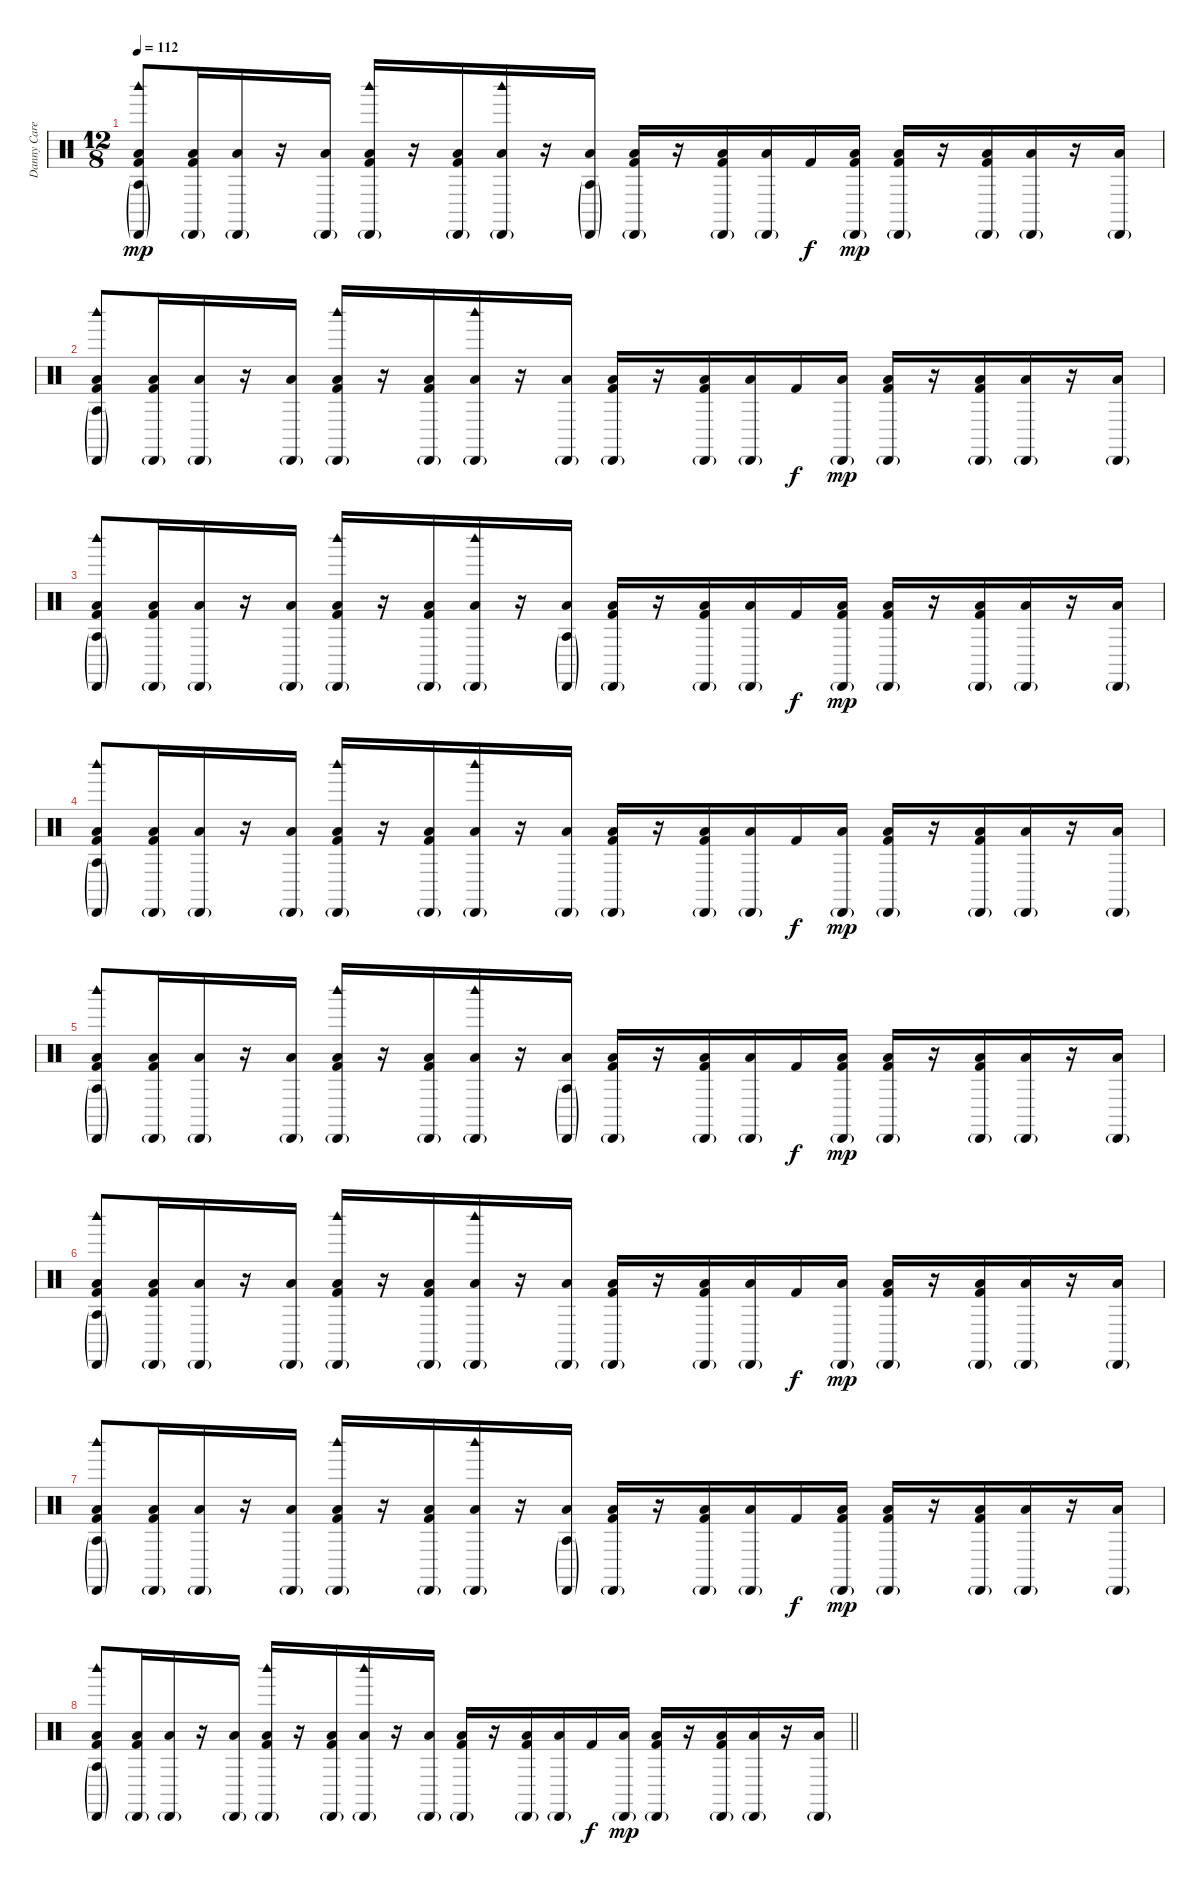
\track ("Danny Carey" "Danny Care") {instrument percussion}
\staff {score}
\articulation defaults
\ts (12 8)
\tempo 112
\clef neutral
\ks c
("Low Floor Tom (hit)" "Agogo tow (hit)"{g} "Cabasa (hit)"{g} "Woodblock high (hit)" "Kick (hit) 2").8{dy mp} ("Low Floor Tom (hit)" "Cabasa (hit)"{g} "Kick (hit) 2").16 ("Low Floor Tom (hit)" "Cabasa (hit)"{g}).16 r.16 ("Low Floor Tom (hit)" "Cabasa (hit)"{g}).16 ("Low Floor Tom (hit)" "Cabasa (hit)"{g} "Woodblock high (hit)" "Kick (hit) 2").16 r.16 ("Low Floor Tom (hit)" "Cabasa (hit)"{g} "Kick (hit) 2").16 ("Low Floor Tom (hit)" "Cabasa (hit)"{g} "Woodblock high (hit)").16 r.16 ("Low Floor Tom (hit)" "Agogo tow (hit)"{g} "Cabasa (hit)"{g}).16 ("Low Floor Tom (hit)" "Cabasa (hit)"{g} "Kick (hit) 2").16 r.16 ("Low Floor Tom (hit)" "Cabasa (hit)"{g} "Kick (hit) 2").16 ("Low Floor Tom (hit)" "Cabasa (hit)"{g}).16 "Kick (hit) 2".16{dy f} ("Low Floor Tom (hit)" "Cabasa (hit)"{g} "Kick (hit) 2").16{dy mp} ("Low Floor Tom (hit)" "Cabasa (hit)"{g} "Kick (hit) 2").16 r.16 ("Low Floor Tom (hit)" "Cabasa (hit)"{g} "Kick (hit) 2").16 ("Low Floor Tom (hit)" "Cabasa (hit)"{g}).16 r.16 ("Low Floor Tom (hit)" "Cabasa (hit)"{g}).16 |
("Low Floor Tom (hit)" "Agogo tow (hit)"{g} "Cabasa (hit)"{g} "Woodblock high (hit)" "Kick (hit) 2").8 ("Low Floor Tom (hit)" "Cabasa (hit)"{g} "Kick (hit) 2").16 ("Low Floor Tom (hit)" "Cabasa (hit)"{g}).16 r.16 ("Low Floor Tom (hit)" "Cabasa (hit)"{g}).16 ("Low Floor Tom (hit)" "Cabasa (hit)"{g} "Woodblock high (hit)" "Kick (hit) 2").16 r.16 ("Low Floor Tom (hit)" "Cabasa (hit)"{g} "Kick (hit) 2").16 ("Low Floor Tom (hit)" "Cabasa (hit)"{g} "Woodblock high (hit)").16 r.16 ("Low Floor Tom (hit)" "Cabasa (hit)"{g}).16 ("Low Floor Tom (hit)" "Cabasa (hit)"{g} "Kick (hit) 2").16 r.16 ("Low Floor Tom (hit)" "Cabasa (hit)"{g} "Kick (hit) 2").16 ("Low Floor Tom (hit)" "Cabasa (hit)"{g}).16 "Kick (hit) 2".16{dy f} ("Low Floor Tom (hit)" "Cabasa (hit)"{g}).16{dy mp} ("Low Floor Tom (hit)" "Cabasa (hit)"{g} "Kick (hit) 2").16 r.16 ("Low Floor Tom (hit)" "Cabasa (hit)"{g} "Kick (hit) 2").16 ("Low Floor Tom (hit)" "Cabasa (hit)"{g}).16 r.16 ("Low Floor Tom (hit)" "Cabasa (hit)"{g}).16 |
("Low Floor Tom (hit)" "Agogo tow (hit)"{g} "Cabasa (hit)"{g} "Woodblock high (hit)" "Kick (hit) 2").8 ("Low Floor Tom (hit)" "Cabasa (hit)"{g} "Kick (hit) 2").16 ("Low Floor Tom (hit)" "Cabasa (hit)"{g}).16 r.16 ("Low Floor Tom (hit)" "Cabasa (hit)"{g}).16 ("Low Floor Tom (hit)" "Cabasa (hit)"{g} "Woodblock high (hit)" "Kick (hit) 2").16 r.16 ("Low Floor Tom (hit)" "Cabasa (hit)"{g} "Kick (hit) 2").16 ("Low Floor Tom (hit)" "Cabasa (hit)"{g} "Woodblock high (hit)").16 r.16 ("Low Floor Tom (hit)" "Agogo tow (hit)"{g} "Cabasa (hit)"{g}).16 ("Low Floor Tom (hit)" "Cabasa (hit)"{g} "Kick (hit) 2").16 r.16 ("Low Floor Tom (hit)" "Cabasa (hit)"{g} "Kick (hit) 2").16 ("Low Floor Tom (hit)" "Cabasa (hit)"{g}).16 "Kick (hit) 2".16{dy f} ("Low Floor Tom (hit)" "Cabasa (hit)"{g} "Kick (hit) 2").16{dy mp} ("Low Floor Tom (hit)" "Cabasa (hit)"{g} "Kick (hit) 2").16 r.16 ("Low Floor Tom (hit)" "Cabasa (hit)"{g} "Kick (hit) 2").16 ("Low Floor Tom (hit)" "Cabasa (hit)"{g}).16 r.16 ("Low Floor Tom (hit)" "Cabasa (hit)"{g}).16 |
("Low Floor Tom (hit)" "Agogo tow (hit)"{g} "Cabasa (hit)"{g} "Woodblock high (hit)" "Kick (hit) 2").8 ("Low Floor Tom (hit)" "Cabasa (hit)"{g} "Kick (hit) 2").16 ("Low Floor Tom (hit)" "Cabasa (hit)"{g}).16 r.16 ("Low Floor Tom (hit)" "Cabasa (hit)"{g}).16 ("Low Floor Tom (hit)" "Cabasa (hit)"{g} "Woodblock high (hit)" "Kick (hit) 2").16 r.16 ("Low Floor Tom (hit)" "Cabasa (hit)"{g} "Kick (hit) 2").16 ("Low Floor Tom (hit)" "Cabasa (hit)"{g} "Woodblock high (hit)").16 r.16 ("Low Floor Tom (hit)" "Cabasa (hit)"{g}).16 ("Low Floor Tom (hit)" "Cabasa (hit)"{g} "Kick (hit) 2").16 r.16 ("Low Floor Tom (hit)" "Cabasa (hit)"{g} "Kick (hit) 2").16 ("Low Floor Tom (hit)" "Cabasa (hit)"{g}).16 "Kick (hit) 2".16{dy f} ("Low Floor Tom (hit)" "Cabasa (hit)"{g}).16{dy mp} ("Low Floor Tom (hit)" "Cabasa (hit)"{g} "Kick (hit) 2").16 r.16 ("Low Floor Tom (hit)" "Cabasa (hit)"{g} "Kick (hit) 2").16 ("Low Floor Tom (hit)" "Cabasa (hit)"{g}).16 r.16 ("Low Floor Tom (hit)" "Cabasa (hit)"{g}).16 |
("Low Floor Tom (hit)" "Agogo tow (hit)"{g} "Cabasa (hit)"{g} "Woodblock high (hit)" "Kick (hit) 2").8 ("Low Floor Tom (hit)" "Cabasa (hit)"{g} "Kick (hit) 2").16 ("Low Floor Tom (hit)" "Cabasa (hit)"{g}).16 r.16 ("Low Floor Tom (hit)" "Cabasa (hit)"{g}).16 ("Low Floor Tom (hit)" "Cabasa (hit)"{g} "Woodblock high (hit)" "Kick (hit) 2").16 r.16 ("Low Floor Tom (hit)" "Cabasa (hit)"{g} "Kick (hit) 2").16 ("Low Floor Tom (hit)" "Cabasa (hit)"{g} "Woodblock high (hit)").16 r.16 ("Low Floor Tom (hit)" "Agogo tow (hit)"{g} "Cabasa (hit)"{g}).16 ("Low Floor Tom (hit)" "Cabasa (hit)"{g} "Kick (hit) 2").16 r.16 ("Low Floor Tom (hit)" "Cabasa (hit)"{g} "Kick (hit) 2").16 ("Low Floor Tom (hit)" "Cabasa (hit)"{g}).16 "Kick (hit) 2".16{dy f} ("Low Floor Tom (hit)" "Cabasa (hit)"{g} "Kick (hit) 2").16{dy mp} ("Low Floor Tom (hit)" "Cabasa (hit)"{g} "Kick (hit) 2").16 r.16 ("Low Floor Tom (hit)" "Cabasa (hit)"{g} "Kick (hit) 2").16 ("Low Floor Tom (hit)" "Cabasa (hit)"{g}).16 r.16 ("Low Floor Tom (hit)" "Cabasa (hit)"{g}).16 |
("Low Floor Tom (hit)" "Agogo tow (hit)"{g} "Cabasa (hit)"{g} "Woodblock high (hit)" "Kick (hit) 2").8 ("Low Floor Tom (hit)" "Cabasa (hit)"{g} "Kick (hit) 2").16 ("Low Floor Tom (hit)" "Cabasa (hit)"{g}).16 r.16 ("Low Floor Tom (hit)" "Cabasa (hit)"{g}).16 ("Low Floor Tom (hit)" "Cabasa (hit)"{g} "Woodblock high (hit)" "Kick (hit) 2").16 r.16 ("Low Floor Tom (hit)" "Cabasa (hit)"{g} "Kick (hit) 2").16 ("Low Floor Tom (hit)" "Cabasa (hit)"{g} "Woodblock high (hit)").16 r.16 ("Low Floor Tom (hit)" "Cabasa (hit)"{g}).16 ("Low Floor Tom (hit)" "Cabasa (hit)"{g} "Kick (hit) 2").16 r.16 ("Low Floor Tom (hit)" "Cabasa (hit)"{g} "Kick (hit) 2").16 ("Low Floor Tom (hit)" "Cabasa (hit)"{g}).16 "Kick (hit) 2".16{dy f} ("Low Floor Tom (hit)" "Cabasa (hit)"{g}).16{dy mp} ("Low Floor Tom (hit)" "Cabasa (hit)"{g} "Kick (hit) 2").16 r.16 ("Low Floor Tom (hit)" "Cabasa (hit)"{g} "Kick (hit) 2").16 ("Low Floor Tom (hit)" "Cabasa (hit)"{g}).16 r.16 ("Low Floor Tom (hit)" "Cabasa (hit)"{g}).16 |
("Low Floor Tom (hit)" "Agogo tow (hit)"{g} "Cabasa (hit)"{g} "Woodblock high (hit)" "Kick (hit) 2").8 ("Low Floor Tom (hit)" "Cabasa (hit)"{g} "Kick (hit) 2").16 ("Low Floor Tom (hit)" "Cabasa (hit)"{g}).16 r.16 ("Low Floor Tom (hit)" "Cabasa (hit)"{g}).16 ("Low Floor Tom (hit)" "Cabasa (hit)"{g} "Woodblock high (hit)" "Kick (hit) 2").16 r.16 ("Low Floor Tom (hit)" "Cabasa (hit)"{g} "Kick (hit) 2").16 ("Low Floor Tom (hit)" "Cabasa (hit)"{g} "Woodblock high (hit)").16 r.16 ("Low Floor Tom (hit)" "Agogo tow (hit)"{g} "Cabasa (hit)"{g}).16 ("Low Floor Tom (hit)" "Cabasa (hit)"{g} "Kick (hit) 2").16 r.16 ("Low Floor Tom (hit)" "Cabasa (hit)"{g} "Kick (hit) 2").16 ("Low Floor Tom (hit)" "Cabasa (hit)"{g}).16 "Kick (hit) 2".16{dy f} ("Low Floor Tom (hit)" "Cabasa (hit)"{g} "Kick (hit) 2").16{dy mp} ("Low Floor Tom (hit)" "Cabasa (hit)"{g} "Kick (hit) 2").16 r.16 ("Low Floor Tom (hit)" "Cabasa (hit)"{g} "Kick (hit) 2").16 ("Low Floor Tom (hit)" "Cabasa (hit)"{g}).16 r.16 ("Low Floor Tom (hit)" "Cabasa (hit)"{g}).16 |
\barLineRight lightlight
("Low Floor Tom (hit)" "Agogo tow (hit)"{g} "Cabasa (hit)"{g} "Woodblock high (hit)" "Kick (hit) 2").8 ("Low Floor Tom (hit)" "Cabasa (hit)"{g} "Kick (hit) 2").16 ("Low Floor Tom (hit)" "Cabasa (hit)"{g}).16 r.16 ("Low Floor Tom (hit)" "Cabasa (hit)"{g}).16 ("Low Floor Tom (hit)" "Cabasa (hit)"{g} "Woodblock high (hit)" "Kick (hit) 2").16 r.16 ("Low Floor Tom (hit)" "Cabasa (hit)"{g} "Kick (hit) 2").16 ("Low Floor Tom (hit)" "Cabasa (hit)"{g} "Woodblock high (hit)").16 r.16 ("Low Floor Tom (hit)" "Cabasa (hit)"{g}).16 ("Low Floor Tom (hit)" "Cabasa (hit)"{g} "Kick (hit) 2").16 r.16 ("Low Floor Tom (hit)" "Cabasa (hit)"{g} "Kick (hit) 2").16 ("Low Floor Tom (hit)" "Cabasa (hit)"{g}).16 "Kick (hit) 2".16{dy f} ("Low Floor Tom (hit)" "Cabasa (hit)"{g}).16{dy mp} ("Low Floor Tom (hit)" "Cabasa (hit)"{g} "Kick (hit) 2").16 r.16 ("Low Floor Tom (hit)" "Cabasa (hit)"{g} "Kick (hit) 2").16 ("Low Floor Tom (hit)" "Cabasa (hit)"{g}).16 r.16 ("Low Floor Tom (hit)" "Cabasa (hit)"{g}).16
